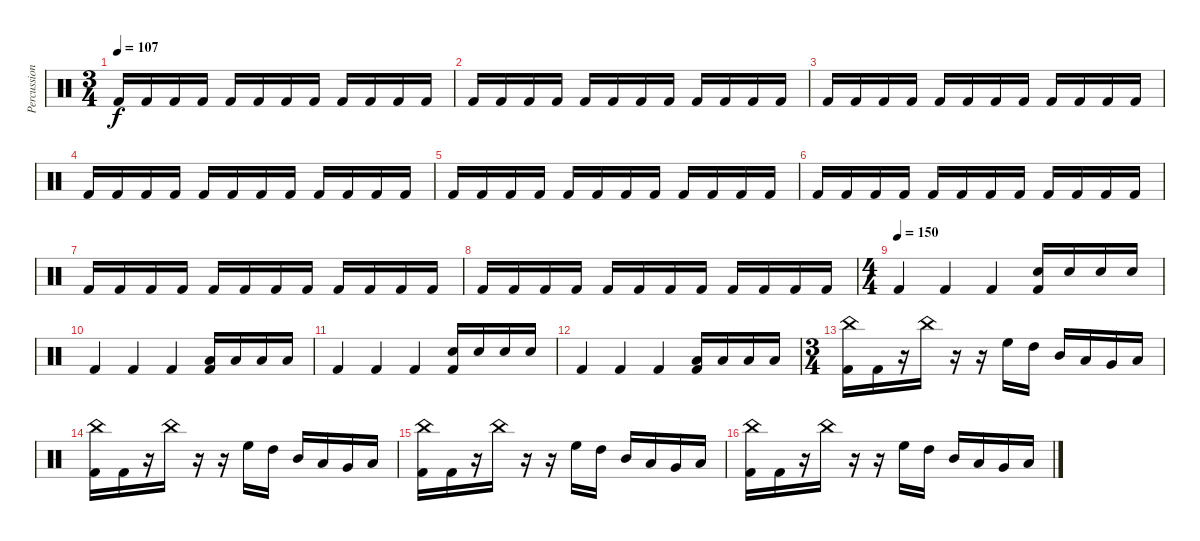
\track ("Percussion" "Percussion") {instrument percussion}
\staff {score}
\articulation defaults
\ts (3 4)
\tempo 107
\clef neutral
\ks c "Kick (hit) 2".16{dy f} "Kick (hit) 2".16 "Kick (hit) 2".16 "Kick (hit) 2".16 "Kick (hit) 2".16 "Kick (hit) 2".16 "Kick (hit) 2".16 "Kick (hit) 2".16 "Kick (hit) 2".16 "Kick (hit) 2".16 "Kick (hit) 2".16 "Kick (hit) 2".16
|
"Kick (hit) 2".16 "Kick (hit) 2".16 "Kick (hit) 2".16 "Kick (hit) 2".16 "Kick (hit) 2".16 "Kick (hit) 2".16 "Kick (hit) 2".16 "Kick (hit) 2".16 "Kick (hit) 2".16 "Kick (hit) 2".16 "Kick (hit) 2".16 "Kick (hit) 2".16 |
"Kick (hit) 2".16 "Kick (hit) 2".16 "Kick (hit) 2".16 "Kick (hit) 2".16 "Kick (hit) 2".16 "Kick (hit) 2".16 "Kick (hit) 2".16 "Kick (hit) 2".16 "Kick (hit) 2".16 "Kick (hit) 2".16 "Kick (hit) 2".16 "Kick (hit) 2".16 |
"Kick (hit) 2".16 "Kick (hit) 2".16 "Kick (hit) 2".16 "Kick (hit) 2".16 "Kick (hit) 2".16 "Kick (hit) 2".16 "Kick (hit) 2".16 "Kick (hit) 2".16 "Kick (hit) 2".16 "Kick (hit) 2".16 "Kick (hit) 2".16 "Kick (hit) 2".16 |
"Kick (hit) 2".16 "Kick (hit) 2".16 "Kick (hit) 2".16 "Kick (hit) 2".16 "Kick (hit) 2".16 "Kick (hit) 2".16 "Kick (hit) 2".16 "Kick (hit) 2".16 "Kick (hit) 2".16 "Kick (hit) 2".16 "Kick (hit) 2".16 "Kick (hit) 2".16 |
"Kick (hit) 2".16 "Kick (hit) 2".16 "Kick (hit) 2".16 "Kick (hit) 2".16 "Kick (hit) 2".16 "Kick (hit) 2".16 "Kick (hit) 2".16 "Kick (hit) 2".16 "Kick (hit) 2".16 "Kick (hit) 2".16 "Kick (hit) 2".16 "Kick (hit) 2".16 |
"Kick (hit) 2".16 "Kick (hit) 2".16 "Kick (hit) 2".16 "Kick (hit) 2".16 "Kick (hit) 2".16 "Kick (hit) 2".16 "Kick (hit) 2".16 "Kick (hit) 2".16 "Kick (hit) 2".16 "Kick (hit) 2".16 "Kick (hit) 2".16 "Kick (hit) 2".16 |
"Kick (hit) 2".16 "Kick (hit) 2".16 "Kick (hit) 2".16 "Kick (hit) 2".16 "Kick (hit) 2".16 "Kick (hit) 2".16 "Kick (hit) 2".16 "Kick (hit) 2".16 "Kick (hit) 2".16 "Kick (hit) 2".16 "Kick (hit) 2".16 "Kick (hit) 2".16 |
\ts (4 4)
\tempo (150)
"Kick (hit) 2".4 "Kick (hit) 2".4 "Kick (hit) 2".4 ("Electric Snare (hit)" "Kick (hit) 2").16 "Electric Snare (hit)".16 "Electric Snare (hit)".16 "Electric Snare (hit)".16 |
"Kick (hit) 2".4 "Kick (hit) 2".4 "Kick (hit) 2".4 ("Low Tom (hit)" "Kick (hit) 2").16 "Low Tom (hit)".16 "Low Tom (hit)".16 "Low Tom (hit)".16 |
"Kick (hit) 2".4 "Kick (hit) 2".4 "Kick (hit) 2".4 ("Electric Snare (hit)" "Kick (hit) 2").16 "Electric Snare (hit)".16 "Electric Snare (hit)".16 "Electric Snare (hit)".16 |
"Kick (hit) 2".4 "Kick (hit) 2".4 "Kick (hit) 2".4 ("Low Tom (hit)" "Kick (hit) 2").16 "Low Tom (hit)".16 "Low Tom (hit)".16 "Low Tom (hit)".16 |
\ts (3 4)
("China (hit)" "Kick (hit) 2").16 "Kick (hit) 2".16 r.16 "China (hit)".16 r.16 r.16 "High Floor Tom (hit)".16 "High Tom (hit)".16 "Mid Tom (hit)".16 "Low Tom (hit)".16 "Very Low Tom (hit)".16 "Low Floor Tom (hit)".16 |
("China (hit)" "Kick (hit) 2").16 "Kick (hit) 2".16 r.16 "China (hit)".16 r.16 r.16 "High Floor Tom (hit)".16 "High Tom (hit)".16 "Mid Tom (hit)".16 "Low Tom (hit)".16 "Very Low Tom (hit)".16 "Low Floor Tom (hit)".16 |
("China (hit)" "Kick (hit) 2").16 "Kick (hit) 2".16 r.16 "China (hit)".16 r.16 r.16 "High Floor Tom (hit)".16 "High Tom (hit)".16 "Mid Tom (hit)".16 "Low Tom (hit)".16 "Very Low Tom (hit)".16 "Low Floor Tom (hit)".16 |
("China (hit)" "Kick (hit) 2").16 "Kick (hit) 2".16 r.16 "China (hit)".16 r.16 r.16 "High Floor Tom (hit)".16 "High Tom (hit)".16 "Mid Tom (hit)".16 "Low Tom (hit)".16 "Very Low Tom (hit)".16 "Low Floor Tom (hit)".16
